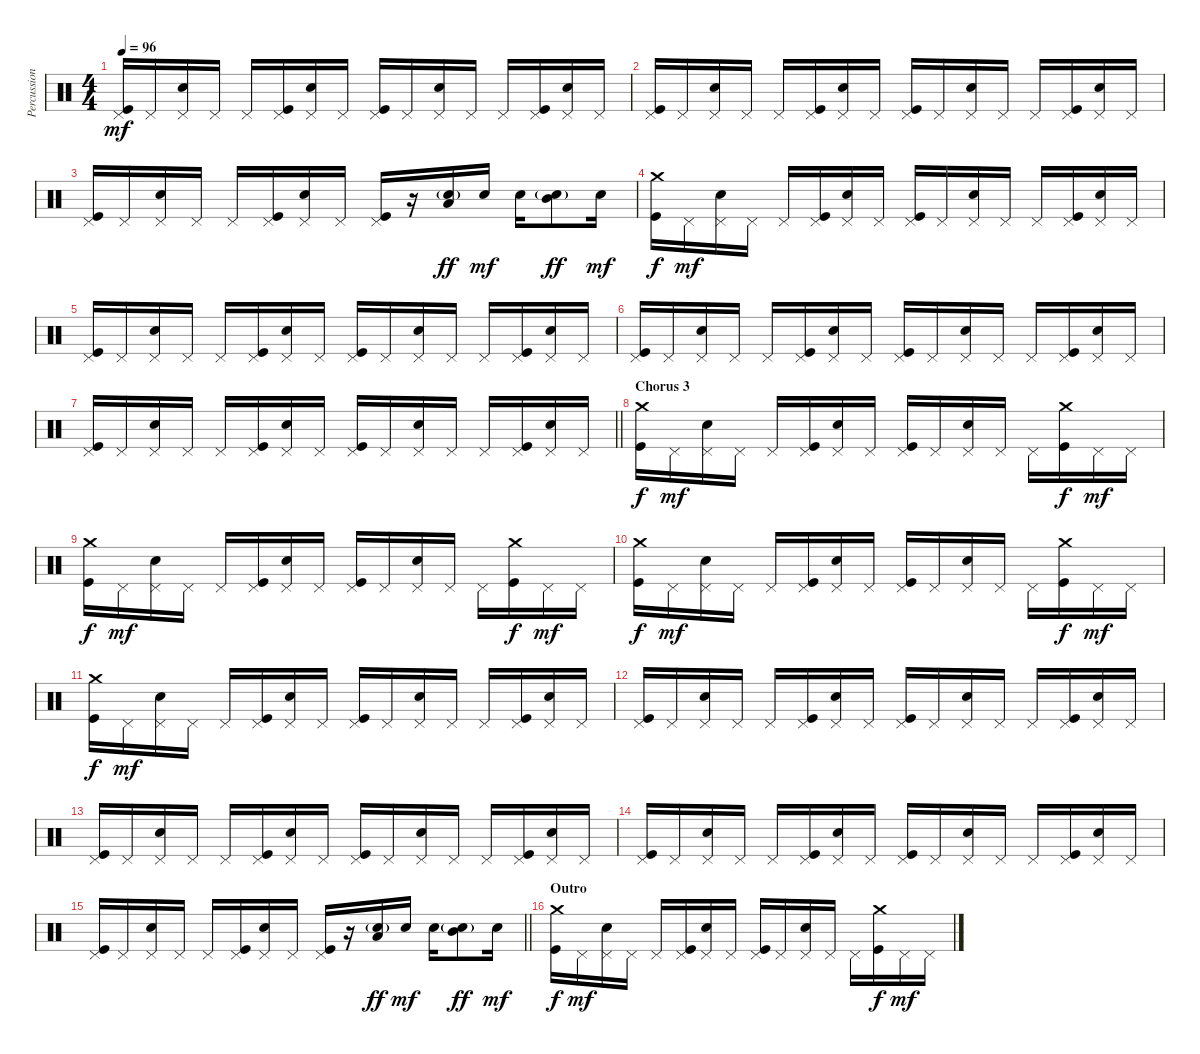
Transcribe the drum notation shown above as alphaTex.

\track ("Percussion" "Percussion") {instrument percussion}
\staff {score}
\articulation defaults
\ts (4 4)
\tempo 96
\clef neutral
\ks c
("Pedal Hi-Hat (hit)" "Kick (hit)").16{dy mf} "Pedal Hi-Hat (hit)".16 ("Pedal Hi-Hat (hit)" "Snare (hit) 2").16 "Pedal Hi-Hat (hit)".16 "Pedal Hi-Hat (hit)".16 ("Pedal Hi-Hat (hit)" "Kick (hit)").16 ("Pedal Hi-Hat (hit)" "Snare (hit) 2").16 "Pedal Hi-Hat (hit)".16 ("Pedal Hi-Hat (hit)" "Kick (hit)").16 "Pedal Hi-Hat (hit)".16 ("Pedal Hi-Hat (hit)" "Snare (hit) 2").16 "Pedal Hi-Hat (hit)".16 "Pedal Hi-Hat (hit)".16 ("Pedal Hi-Hat (hit)" "Kick (hit)").16 ("Pedal Hi-Hat (hit)" "Snare (hit) 2").16 "Pedal Hi-Hat (hit)".16 |
("Pedal Hi-Hat (hit)" "Kick (hit)").16 "Pedal Hi-Hat (hit)".16 ("Pedal Hi-Hat (hit)" "Snare (hit) 2").16 "Pedal Hi-Hat (hit)".16 "Pedal Hi-Hat (hit)".16 ("Pedal Hi-Hat (hit)" "Kick (hit)").16 ("Pedal Hi-Hat (hit)" "Snare (hit) 2").16 "Pedal Hi-Hat (hit)".16 ("Pedal Hi-Hat (hit)" "Kick (hit)").16 "Pedal Hi-Hat (hit)".16 ("Pedal Hi-Hat (hit)" "Snare (hit) 2").16 "Pedal Hi-Hat (hit)".16 "Pedal Hi-Hat (hit)".16 ("Pedal Hi-Hat (hit)" "Kick (hit)").16 ("Pedal Hi-Hat (hit)" "Snare (hit) 2").16 "Pedal Hi-Hat (hit)".16 |
("Pedal Hi-Hat (hit)" "Kick (hit)").16 "Pedal Hi-Hat (hit)".16 ("Pedal Hi-Hat (hit)" "Snare (hit) 2").16 "Pedal Hi-Hat (hit)".16 "Pedal Hi-Hat (hit)".16 ("Pedal Hi-Hat (hit)" "Kick (hit)").16 ("Pedal Hi-Hat (hit)" "Snare (hit) 2").16 "Pedal Hi-Hat (hit)".16 ("Pedal Hi-Hat (hit)" "Kick (hit)").16 r.16 ("Snare (hit) 2"{g} "Low Tom (hit)").16{dy ff} "Electric Snare (hit)".16{dy mf} "Electric Snare (hit)".16 ("Snare (hit) 2"{g} "Mid Tom (hit)").8{dy ff} "Electric Snare (hit)".16{dy mf} |
("Crash medium (hit)" "Kick (hit)").16{dy f} "Pedal Hi-Hat (hit)".16{dy mf} ("Pedal Hi-Hat (hit)" "Snare (hit) 2").16 "Pedal Hi-Hat (hit)".16 "Pedal Hi-Hat (hit)".16 ("Pedal Hi-Hat (hit)" "Kick (hit)").16 ("Pedal Hi-Hat (hit)" "Snare (hit) 2").16 "Pedal Hi-Hat (hit)".16 ("Pedal Hi-Hat (hit)" "Kick (hit)").16 "Pedal Hi-Hat (hit)".16 ("Pedal Hi-Hat (hit)" "Snare (hit) 2").16 "Pedal Hi-Hat (hit)".16 "Pedal Hi-Hat (hit)".16 ("Pedal Hi-Hat (hit)" "Kick (hit)").16 ("Pedal Hi-Hat (hit)" "Snare (hit) 2").16 "Pedal Hi-Hat (hit)".16 |
("Pedal Hi-Hat (hit)" "Kick (hit)").16 "Pedal Hi-Hat (hit)".16 ("Pedal Hi-Hat (hit)" "Snare (hit) 2").16 "Pedal Hi-Hat (hit)".16 "Pedal Hi-Hat (hit)".16 ("Pedal Hi-Hat (hit)" "Kick (hit)").16 ("Pedal Hi-Hat (hit)" "Snare (hit) 2").16 "Pedal Hi-Hat (hit)".16 ("Pedal Hi-Hat (hit)" "Kick (hit)").16 "Pedal Hi-Hat (hit)".16 ("Pedal Hi-Hat (hit)" "Snare (hit) 2").16 "Pedal Hi-Hat (hit)".16 "Pedal Hi-Hat (hit)".16 ("Pedal Hi-Hat (hit)" "Kick (hit)").16 ("Pedal Hi-Hat (hit)" "Snare (hit) 2").16 "Pedal Hi-Hat (hit)".16 |
("Pedal Hi-Hat (hit)" "Kick (hit)").16 "Pedal Hi-Hat (hit)".16 ("Pedal Hi-Hat (hit)" "Snare (hit) 2").16 "Pedal Hi-Hat (hit)".16 "Pedal Hi-Hat (hit)".16 ("Pedal Hi-Hat (hit)" "Kick (hit)").16 ("Pedal Hi-Hat (hit)" "Snare (hit) 2").16 "Pedal Hi-Hat (hit)".16 ("Pedal Hi-Hat (hit)" "Kick (hit)").16 "Pedal Hi-Hat (hit)".16 ("Pedal Hi-Hat (hit)" "Snare (hit) 2").16 "Pedal Hi-Hat (hit)".16 "Pedal Hi-Hat (hit)".16 ("Pedal Hi-Hat (hit)" "Kick (hit)").16 ("Pedal Hi-Hat (hit)" "Snare (hit) 2").16 "Pedal Hi-Hat (hit)".16 |
\barLineRight lightlight
("Pedal Hi-Hat (hit)" "Kick (hit)").16 "Pedal Hi-Hat (hit)".16 ("Pedal Hi-Hat (hit)" "Snare (hit) 2").16 "Pedal Hi-Hat (hit)".16 "Pedal Hi-Hat (hit)".16 ("Pedal Hi-Hat (hit)" "Kick (hit)").16 ("Pedal Hi-Hat (hit)" "Snare (hit) 2").16 "Pedal Hi-Hat (hit)".16 ("Pedal Hi-Hat (hit)" "Kick (hit)").16 "Pedal Hi-Hat (hit)".16 ("Pedal Hi-Hat (hit)" "Snare (hit) 2").16 "Pedal Hi-Hat (hit)".16 "Pedal Hi-Hat (hit)".16 ("Pedal Hi-Hat (hit)" "Kick (hit)").16 ("Pedal Hi-Hat (hit)" "Snare (hit) 2").16 "Pedal Hi-Hat (hit)".16 |
\section ("" "Chorus 3")
("Crash medium (hit)" "Kick (hit)").16{dy f} "Pedal Hi-Hat (hit)".16{dy mf} ("Pedal Hi-Hat (hit)" "Snare (hit) 2").16 "Pedal Hi-Hat (hit)".16 "Pedal Hi-Hat (hit)".16 ("Pedal Hi-Hat (hit)" "Kick (hit)").16 ("Pedal Hi-Hat (hit)" "Snare (hit) 2").16 "Pedal Hi-Hat (hit)".16 ("Pedal Hi-Hat (hit)" "Kick (hit)").16 "Pedal Hi-Hat (hit)".16 ("Pedal Hi-Hat (hit)" "Snare (hit) 2").16 "Pedal Hi-Hat (hit)".16 "Pedal Hi-Hat (hit)".16 ("Crash medium (hit)" "Kick (hit)").16{dy f} "Pedal Hi-Hat (hit)".16{dy mf} "Pedal Hi-Hat (hit)".16 |
("Crash medium (hit)" "Kick (hit)").16{dy f} "Pedal Hi-Hat (hit)".16{dy mf} ("Pedal Hi-Hat (hit)" "Snare (hit) 2").16 "Pedal Hi-Hat (hit)".16 "Pedal Hi-Hat (hit)".16 ("Pedal Hi-Hat (hit)" "Kick (hit)").16 ("Pedal Hi-Hat (hit)" "Snare (hit) 2").16 "Pedal Hi-Hat (hit)".16 ("Pedal Hi-Hat (hit)" "Kick (hit)").16 "Pedal Hi-Hat (hit)".16 ("Pedal Hi-Hat (hit)" "Snare (hit) 2").16 "Pedal Hi-Hat (hit)".16 "Pedal Hi-Hat (hit)".16 ("Crash medium (hit)" "Kick (hit)").16{dy f} "Pedal Hi-Hat (hit)".16{dy mf} "Pedal Hi-Hat (hit)".16 |
("Crash medium (hit)" "Kick (hit)").16{dy f} "Pedal Hi-Hat (hit)".16{dy mf} ("Pedal Hi-Hat (hit)" "Snare (hit) 2").16 "Pedal Hi-Hat (hit)".16 "Pedal Hi-Hat (hit)".16 ("Pedal Hi-Hat (hit)" "Kick (hit)").16 ("Pedal Hi-Hat (hit)" "Snare (hit) 2").16 "Pedal Hi-Hat (hit)".16 ("Pedal Hi-Hat (hit)" "Kick (hit)").16 "Pedal Hi-Hat (hit)".16 ("Pedal Hi-Hat (hit)" "Snare (hit) 2").16 "Pedal Hi-Hat (hit)".16 "Pedal Hi-Hat (hit)".16 ("Crash medium (hit)" "Kick (hit)").16{dy f} "Pedal Hi-Hat (hit)".16{dy mf} "Pedal Hi-Hat (hit)".16 |
("Crash medium (hit)" "Kick (hit)").16{dy f} "Pedal Hi-Hat (hit)".16{dy mf} ("Pedal Hi-Hat (hit)" "Snare (hit) 2").16 "Pedal Hi-Hat (hit)".16 "Pedal Hi-Hat (hit)".16 ("Pedal Hi-Hat (hit)" "Kick (hit)").16 ("Pedal Hi-Hat (hit)" "Snare (hit) 2").16 "Pedal Hi-Hat (hit)".16 ("Pedal Hi-Hat (hit)" "Kick (hit)").16 "Pedal Hi-Hat (hit)".16 ("Pedal Hi-Hat (hit)" "Snare (hit) 2").16 "Pedal Hi-Hat (hit)".16 "Pedal Hi-Hat (hit)".16 ("Pedal Hi-Hat (hit)" "Kick (hit)").16 ("Pedal Hi-Hat (hit)" "Snare (hit) 2").16 "Pedal Hi-Hat (hit)".16 |
("Pedal Hi-Hat (hit)" "Kick (hit)").16 "Pedal Hi-Hat (hit)".16 ("Pedal Hi-Hat (hit)" "Snare (hit) 2").16 "Pedal Hi-Hat (hit)".16 "Pedal Hi-Hat (hit)".16 ("Pedal Hi-Hat (hit)" "Kick (hit)").16 ("Pedal Hi-Hat (hit)" "Snare (hit) 2").16 "Pedal Hi-Hat (hit)".16 ("Pedal Hi-Hat (hit)" "Kick (hit)").16 "Pedal Hi-Hat (hit)".16 ("Pedal Hi-Hat (hit)" "Snare (hit) 2").16 "Pedal Hi-Hat (hit)".16 "Pedal Hi-Hat (hit)".16 ("Pedal Hi-Hat (hit)" "Kick (hit)").16 ("Pedal Hi-Hat (hit)" "Snare (hit) 2").16 "Pedal Hi-Hat (hit)".16 |
("Pedal Hi-Hat (hit)" "Kick (hit)").16 "Pedal Hi-Hat (hit)".16 ("Pedal Hi-Hat (hit)" "Snare (hit) 2").16 "Pedal Hi-Hat (hit)".16 "Pedal Hi-Hat (hit)".16 ("Pedal Hi-Hat (hit)" "Kick (hit)").16 ("Pedal Hi-Hat (hit)" "Snare (hit) 2").16 "Pedal Hi-Hat (hit)".16 ("Pedal Hi-Hat (hit)" "Kick (hit)").16 "Pedal Hi-Hat (hit)".16 ("Pedal Hi-Hat (hit)" "Snare (hit) 2").16 "Pedal Hi-Hat (hit)".16 "Pedal Hi-Hat (hit)".16 ("Pedal Hi-Hat (hit)" "Kick (hit)").16 ("Pedal Hi-Hat (hit)" "Snare (hit) 2").16 "Pedal Hi-Hat (hit)".16 |
("Pedal Hi-Hat (hit)" "Kick (hit)").16 "Pedal Hi-Hat (hit)".16 ("Pedal Hi-Hat (hit)" "Snare (hit) 2").16 "Pedal Hi-Hat (hit)".16 "Pedal Hi-Hat (hit)".16 ("Pedal Hi-Hat (hit)" "Kick (hit)").16 ("Pedal Hi-Hat (hit)" "Snare (hit) 2").16 "Pedal Hi-Hat (hit)".16 ("Pedal Hi-Hat (hit)" "Kick (hit)").16 "Pedal Hi-Hat (hit)".16 ("Pedal Hi-Hat (hit)" "Snare (hit) 2").16 "Pedal Hi-Hat (hit)".16 "Pedal Hi-Hat (hit)".16 ("Pedal Hi-Hat (hit)" "Kick (hit)").16 ("Pedal Hi-Hat (hit)" "Snare (hit) 2").16 "Pedal Hi-Hat (hit)".16 |
\barLineRight lightlight
("Pedal Hi-Hat (hit)" "Kick (hit)").16 "Pedal Hi-Hat (hit)".16 ("Pedal Hi-Hat (hit)" "Snare (hit) 2").16 "Pedal Hi-Hat (hit)".16 "Pedal Hi-Hat (hit)".16 ("Pedal Hi-Hat (hit)" "Kick (hit)").16 ("Pedal Hi-Hat (hit)" "Snare (hit) 2").16 "Pedal Hi-Hat (hit)".16 ("Pedal Hi-Hat (hit)" "Kick (hit)").16 r.16 ("Snare (hit) 2"{g} "Low Tom (hit)").16{dy ff} "Electric Snare (hit)".16{dy mf} "Electric Snare (hit)".16 ("Snare (hit) 2"{g} "Mid Tom (hit)").8{dy ff} "Electric Snare (hit)".16{dy mf} |
\section ("" "Outro")
("Crash medium (hit)" "Kick (hit)").16{dy f} "Pedal Hi-Hat (hit)".16{dy mf} ("Pedal Hi-Hat (hit)" "Snare (hit) 2").16 "Pedal Hi-Hat (hit)".16 "Pedal Hi-Hat (hit)".16 ("Pedal Hi-Hat (hit)" "Kick (hit)").16 ("Pedal Hi-Hat (hit)" "Snare (hit) 2").16 "Pedal Hi-Hat (hit)".16 ("Pedal Hi-Hat (hit)" "Kick (hit)").16 "Pedal Hi-Hat (hit)".16 ("Pedal Hi-Hat (hit)" "Snare (hit) 2").16 "Pedal Hi-Hat (hit)".16 "Pedal Hi-Hat (hit)".16 ("Crash medium (hit)" "Kick (hit)").16{dy f} "Pedal Hi-Hat (hit)".16{dy mf} "Pedal Hi-Hat (hit)".16
